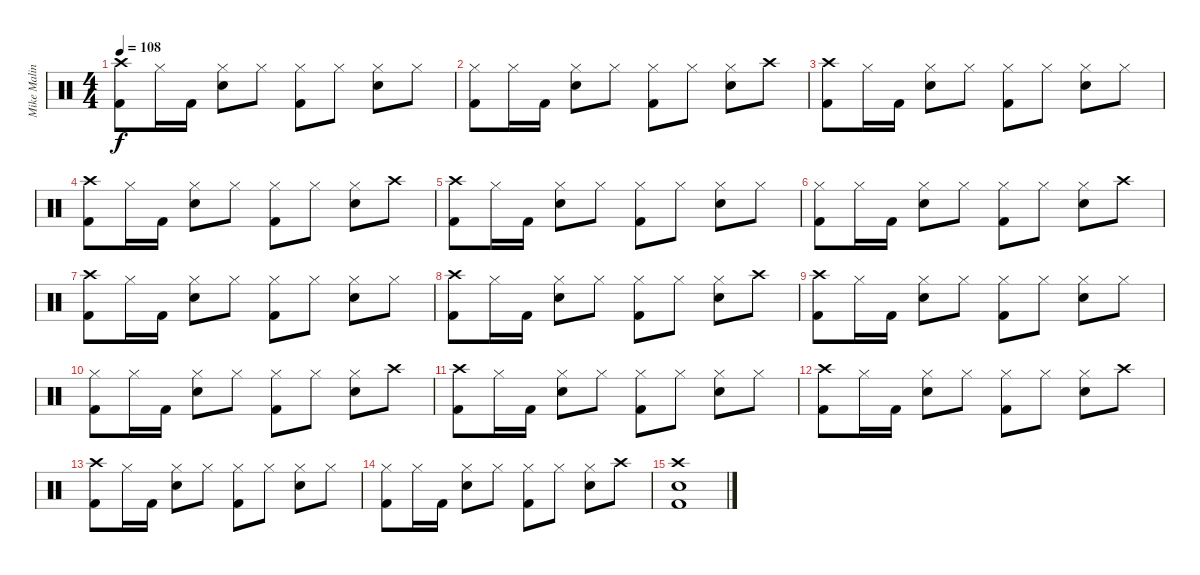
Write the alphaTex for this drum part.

\track ("Mike Malinin (Drums)" "Mike Malin") {instrument percussion}
\staff {score}
\articulation defaults
\ts (4 4)
\tempo 108
\clef neutral
\ks c
("Crash high (hit)" "Kick (hit) 2").8{dy f} "Hi-Hat (closed)".16 "Kick (hit) 2".16 ("Hi-Hat (closed)" "Electric Snare (hit)").8 "Hi-Hat (closed)".8 ("Hi-Hat (closed)" "Kick (hit) 2").8 "Hi-Hat (closed)".8 ("Hi-Hat (closed)" "Electric Snare (hit)").8 "Hi-Hat (closed)".8 |
("Hi-Hat (closed)" "Kick (hit) 2").8 "Hi-Hat (closed)".16 "Kick (hit) 2".16 ("Hi-Hat (closed)" "Electric Snare (hit)").8 "Hi-Hat (closed)".8 ("Hi-Hat (closed)" "Kick (hit) 2").8 "Hi-Hat (closed)".8 ("Hi-Hat (closed)" "Electric Snare (hit)").8 "Crash high (hit)".8 |
("Crash high (hit)" "Kick (hit) 2").8 "Hi-Hat (closed)".16 "Kick (hit) 2".16 ("Hi-Hat (closed)" "Electric Snare (hit)").8 "Hi-Hat (closed)".8 ("Hi-Hat (closed)" "Kick (hit) 2").8 "Hi-Hat (closed)".8 ("Hi-Hat (closed)" "Electric Snare (hit)").8 "Hi-Hat (closed)".8 |
("Crash high (hit)" "Kick (hit) 2").8 "Hi-Hat (closed)".16 "Kick (hit) 2".16 ("Hi-Hat (closed)" "Electric Snare (hit)").8 "Hi-Hat (closed)".8 ("Hi-Hat (closed)" "Kick (hit) 2").8 "Hi-Hat (closed)".8 ("Hi-Hat (closed)" "Electric Snare (hit)").8 "Crash high (hit)".8 |
("Crash high (hit)" "Kick (hit) 2").8 "Hi-Hat (closed)".16 "Kick (hit) 2".16 ("Hi-Hat (closed)" "Electric Snare (hit)").8 "Hi-Hat (closed)".8 ("Hi-Hat (closed)" "Kick (hit) 2").8 "Hi-Hat (closed)".8 ("Hi-Hat (closed)" "Electric Snare (hit)").8 "Hi-Hat (closed)".8 |
("Hi-Hat (closed)" "Kick (hit) 2").8 "Hi-Hat (closed)".16 "Kick (hit) 2".16 ("Hi-Hat (closed)" "Electric Snare (hit)").8 "Hi-Hat (closed)".8 ("Hi-Hat (closed)" "Kick (hit) 2").8 "Hi-Hat (closed)".8 ("Hi-Hat (closed)" "Electric Snare (hit)").8 "Crash high (hit)".8 |
("Crash high (hit)" "Kick (hit) 2").8 "Hi-Hat (closed)".16 "Kick (hit) 2".16 ("Hi-Hat (closed)" "Electric Snare (hit)").8 "Hi-Hat (closed)".8 ("Hi-Hat (closed)" "Kick (hit) 2").8 "Hi-Hat (closed)".8 ("Hi-Hat (closed)" "Electric Snare (hit)").8 "Hi-Hat (closed)".8 |
("Crash high (hit)" "Kick (hit) 2").8 "Hi-Hat (closed)".16 "Kick (hit) 2".16 ("Hi-Hat (closed)" "Electric Snare (hit)").8 "Hi-Hat (closed)".8 ("Hi-Hat (closed)" "Kick (hit) 2").8 "Hi-Hat (closed)".8 ("Hi-Hat (closed)" "Electric Snare (hit)").8 "Crash high (hit)".8 |
("Crash high (hit)" "Kick (hit) 2").8 "Hi-Hat (closed)".16 "Kick (hit) 2".16 ("Hi-Hat (closed)" "Electric Snare (hit)").8 "Hi-Hat (closed)".8 ("Hi-Hat (closed)" "Kick (hit) 2").8 "Hi-Hat (closed)".8 ("Hi-Hat (closed)" "Electric Snare (hit)").8 "Hi-Hat (closed)".8 |
("Hi-Hat (closed)" "Kick (hit) 2").8 "Hi-Hat (closed)".16 "Kick (hit) 2".16 ("Hi-Hat (closed)" "Electric Snare (hit)").8 "Hi-Hat (closed)".8 ("Hi-Hat (closed)" "Kick (hit) 2").8 "Hi-Hat (closed)".8 ("Hi-Hat (closed)" "Electric Snare (hit)").8 "Crash high (hit)".8 |
("Crash high (hit)" "Kick (hit) 2").8 "Hi-Hat (closed)".16 "Kick (hit) 2".16 ("Hi-Hat (closed)" "Electric Snare (hit)").8 "Hi-Hat (closed)".8 ("Hi-Hat (closed)" "Kick (hit) 2").8 "Hi-Hat (closed)".8 ("Hi-Hat (closed)" "Electric Snare (hit)").8 "Hi-Hat (closed)".8 |
("Crash high (hit)" "Kick (hit) 2").8 "Hi-Hat (closed)".16 "Kick (hit) 2".16 ("Hi-Hat (closed)" "Electric Snare (hit)").8 "Hi-Hat (closed)".8 ("Hi-Hat (closed)" "Kick (hit) 2").8 "Hi-Hat (closed)".8 ("Hi-Hat (closed)" "Electric Snare (hit)").8 "Crash high (hit)".8 |
("Crash high (hit)" "Kick (hit) 2").8 "Hi-Hat (closed)".16 "Kick (hit) 2".16 ("Hi-Hat (closed)" "Electric Snare (hit)").8 "Hi-Hat (closed)".8 ("Hi-Hat (closed)" "Kick (hit) 2").8 "Hi-Hat (closed)".8 ("Hi-Hat (closed)" "Electric Snare (hit)").8 "Hi-Hat (closed)".8 |
("Hi-Hat (closed)" "Kick (hit) 2").8 "Hi-Hat (closed)".16 "Kick (hit) 2".16 ("Hi-Hat (closed)" "Electric Snare (hit)").8 "Hi-Hat (closed)".8 ("Hi-Hat (closed)" "Kick (hit) 2").8 "Hi-Hat (closed)".8 ("Hi-Hat (closed)" "Electric Snare (hit)").8 "Crash high (hit)".8 |
("Crash high (hit)" "Electric Snare (hit)" "Kick (hit) 2").1
